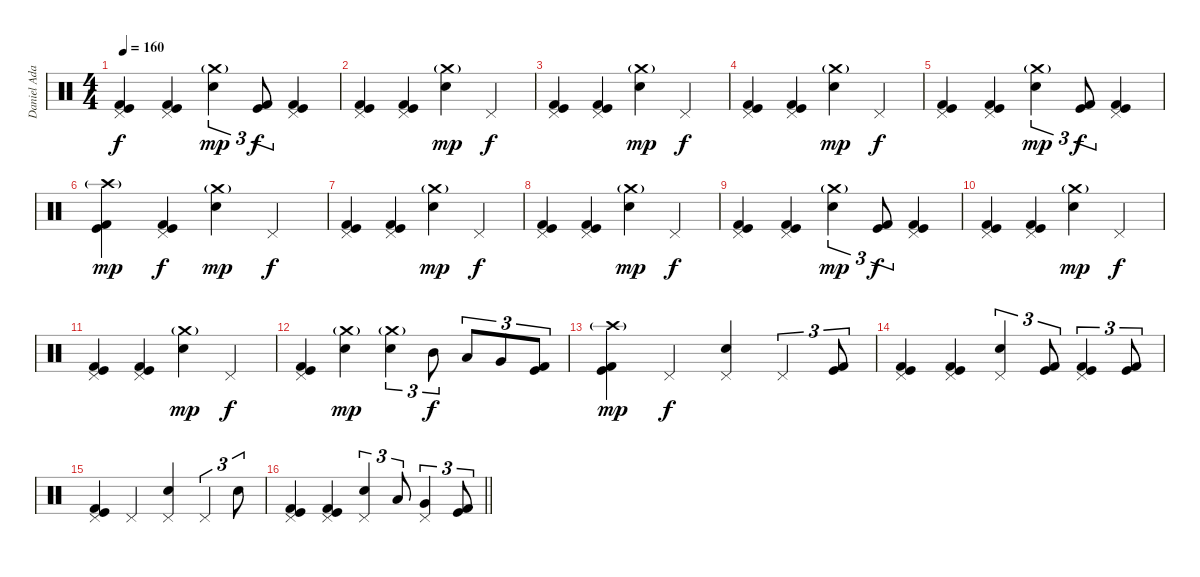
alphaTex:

\track ("Daniel Adair" "Daniel Ada") {instrument percussion}
\staff {score}
\articulation defaults
\ts (4 4)
\tempo 160
\clef neutral
\ks c
("Pedal Hi-Hat (hit)" "Kick (hit)" "Kick (hit) 2").4{dy f} ("Pedal Hi-Hat (hit)" "Kick (hit)" "Kick (hit) 2").4 ("Crash medium (hit)"{g} "Electric Snare (hit)").4{tu (3 2) dy mp} ("Kick (hit)" "Kick (hit) 2").8{tu (3 2) dy f} ("Pedal Hi-Hat (hit)" "Kick (hit)" "Kick (hit) 2").4 |
("Pedal Hi-Hat (hit)" "Kick (hit)" "Kick (hit) 2").4 ("Pedal Hi-Hat (hit)" "Kick (hit)" "Kick (hit) 2").4 ("Crash medium (hit)"{g} "Electric Snare (hit)").4{dy mp} "Pedal Hi-Hat (hit)".4{dy f} |
("Pedal Hi-Hat (hit)" "Kick (hit)" "Kick (hit) 2").4 ("Pedal Hi-Hat (hit)" "Kick (hit)" "Kick (hit) 2").4 ("Crash medium (hit)"{g} "Electric Snare (hit)").4{dy mp} "Pedal Hi-Hat (hit)".4{dy f} |
("Pedal Hi-Hat (hit)" "Kick (hit)" "Kick (hit) 2").4 ("Pedal Hi-Hat (hit)" "Kick (hit)" "Kick (hit) 2").4 ("Crash medium (hit)"{g} "Electric Snare (hit)").4{dy mp} "Pedal Hi-Hat (hit)".4{dy f} |
("Pedal Hi-Hat (hit)" "Kick (hit)" "Kick (hit) 2").4 ("Pedal Hi-Hat (hit)" "Kick (hit)" "Kick (hit) 2").4 ("Crash medium (hit)"{g} "Electric Snare (hit)").4{tu (3 2) dy mp} ("Kick (hit)" "Kick (hit) 2").8{tu (3 2) dy f} ("Pedal Hi-Hat (hit)" "Kick (hit)" "Kick (hit) 2").4 |
("Crash high (hit)"{g} "Kick (hit)" "Kick (hit) 2").4{dy mp} ("Pedal Hi-Hat (hit)" "Kick (hit)" "Kick (hit) 2").4{dy f} ("Crash medium (hit)"{g} "Electric Snare (hit)").4{dy mp} "Pedal Hi-Hat (hit)".4{dy f} |
("Pedal Hi-Hat (hit)" "Kick (hit)" "Kick (hit) 2").4 ("Pedal Hi-Hat (hit)" "Kick (hit)" "Kick (hit) 2").4 ("Crash medium (hit)"{g} "Electric Snare (hit)").4{dy mp} "Pedal Hi-Hat (hit)".4{dy f} |
("Pedal Hi-Hat (hit)" "Kick (hit)" "Kick (hit) 2").4 ("Pedal Hi-Hat (hit)" "Kick (hit)" "Kick (hit) 2").4 ("Crash medium (hit)"{g} "Electric Snare (hit)").4{dy mp} "Pedal Hi-Hat (hit)".4{dy f} |
("Pedal Hi-Hat (hit)" "Kick (hit)" "Kick (hit) 2").4 ("Pedal Hi-Hat (hit)" "Kick (hit)" "Kick (hit) 2").4 ("Crash medium (hit)"{g} "Electric Snare (hit)").4{tu (3 2) dy mp} ("Kick (hit)" "Kick (hit) 2").8{tu (3 2) dy f} ("Pedal Hi-Hat (hit)" "Kick (hit)" "Kick (hit) 2").4 |
("Pedal Hi-Hat (hit)" "Kick (hit)" "Kick (hit) 2").4 ("Pedal Hi-Hat (hit)" "Kick (hit)" "Kick (hit) 2").4 ("Crash medium (hit)"{g} "Electric Snare (hit)").4{dy mp} "Pedal Hi-Hat (hit)".4{dy f} |
("Pedal Hi-Hat (hit)" "Kick (hit)" "Kick (hit) 2").4 ("Pedal Hi-Hat (hit)" "Kick (hit)" "Kick (hit) 2").4 ("Crash medium (hit)"{g} "Electric Snare (hit)").4{dy mp} "Pedal Hi-Hat (hit)".4{dy f} |
("Pedal Hi-Hat (hit)" "Kick (hit)" "Kick (hit) 2").4 ("Crash medium (hit)"{g} "Electric Snare (hit)").4{dy mp} ("Crash medium (hit)"{g} "Electric Snare (hit)").4{tu (3 2)} "Mid Tom (hit)".8{tu (3 2) dy f} "Low Tom (hit)".8{tu (3 2)} "Very Low Tom (hit)".8{tu (3 2)} ("Kick (hit)" "Kick (hit) 2").8{tu (3 2)} |
("Crash high (hit)"{g} "Kick (hit)" "Kick (hit) 2").4{dy mp} "Pedal Hi-Hat (hit)".4{dy f} ("Pedal Hi-Hat (hit)" "Electric Snare (hit)").4 "Pedal Hi-Hat (hit)".4{tu (3 2)} ("Kick (hit)" "Kick (hit) 2").8{tu (3 2)} |
("Pedal Hi-Hat (hit)" "Kick (hit)" "Kick (hit) 2").4 ("Pedal Hi-Hat (hit)" "Kick (hit)" "Kick (hit) 2").4 ("Pedal Hi-Hat (hit)" "Electric Snare (hit)").4{tu (3 2)} ("Kick (hit)" "Kick (hit) 2").8{tu (3 2)} ("Pedal Hi-Hat (hit)" "Kick (hit)" "Kick (hit) 2").4{tu (3 2)} ("Kick (hit)" "Kick (hit) 2").8{tu (3 2)} |
("Pedal Hi-Hat (hit)" "Kick (hit)" "Kick (hit) 2").4 "Pedal Hi-Hat (hit)".4 ("Pedal Hi-Hat (hit)" "Electric Snare (hit)").4 "Pedal Hi-Hat (hit)".4{tu (3 2)} "Electric Snare (hit)".8{tu (3 2)} |
\barLineRight lightlight
("Pedal Hi-Hat (hit)" "Kick (hit)" "Kick (hit) 2").4 ("Pedal Hi-Hat (hit)" "Kick (hit)" "Kick (hit) 2").4 ("Pedal Hi-Hat (hit)" "Electric Snare (hit)").4{tu (3 2)} "Low Tom (hit)".8{tu (3 2)} ("Pedal Hi-Hat (hit)" "Very Low Tom (hit)").4{tu (3 2)} ("Kick (hit)" "Kick (hit) 2").8{tu (3 2)}
